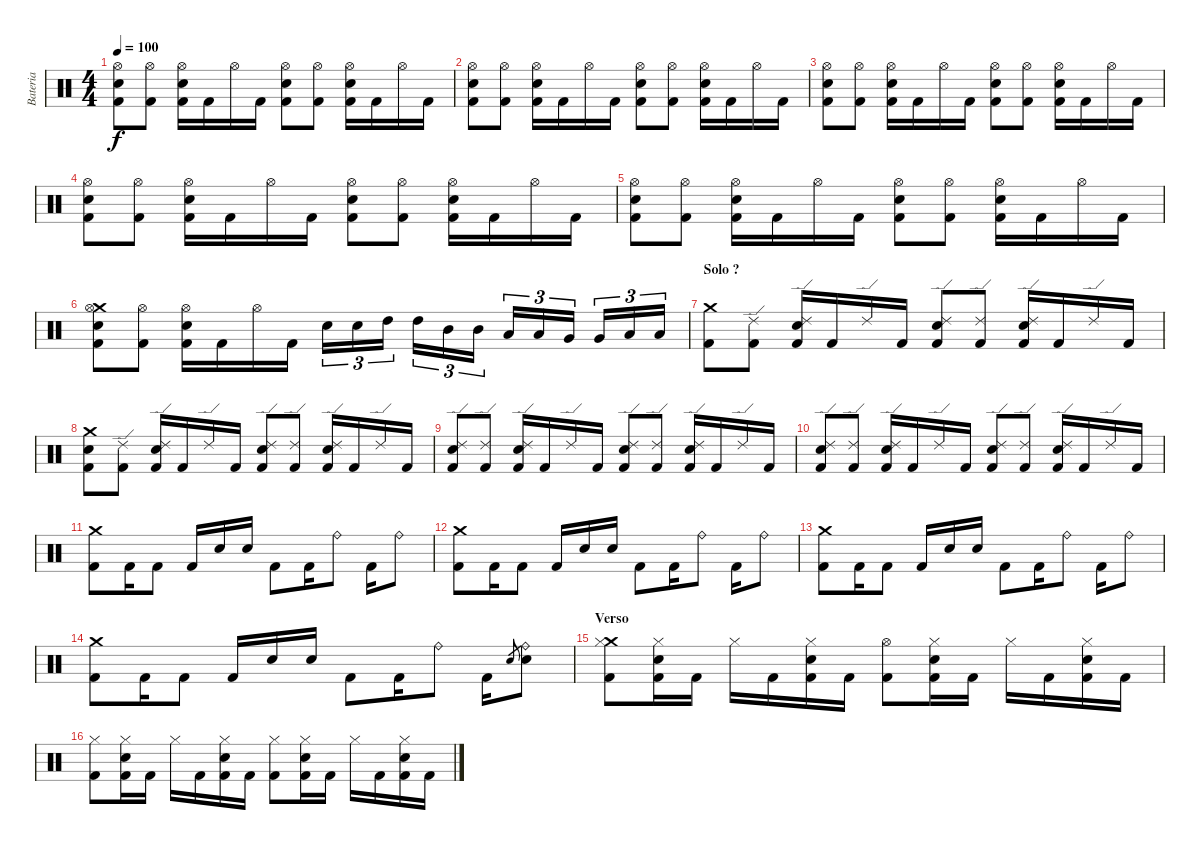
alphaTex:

\track ("Bateria" "Bateria") {instrument percussion}
\staff {score}
\articulation defaults
\ts (4 4)
\tempo 100
\clef neutral
\ks c
("Hi-Hat (open)" "Electric Snare (hit)" "Kick (hit) 2").8{dy f} ("Hi-Hat (open)" "Kick (hit) 2").8 ("Hi-Hat (open)" "Electric Snare (hit)" "Kick (hit) 2").16 "Kick (hit) 2".16 "Hi-Hat (open)".16 "Kick (hit) 2".16 ("Hi-Hat (open)" "Electric Snare (hit)" "Kick (hit) 2").8 ("Hi-Hat (open)" "Kick (hit) 2").8 ("Hi-Hat (open)" "Electric Snare (hit)" "Kick (hit) 2").16 "Kick (hit) 2".16 "Hi-Hat (open)".16 "Kick (hit) 2".16 |
("Hi-Hat (open)" "Electric Snare (hit)" "Kick (hit) 2").8 ("Hi-Hat (open)" "Kick (hit) 2").8 ("Hi-Hat (open)" "Electric Snare (hit)" "Kick (hit) 2").16 "Kick (hit) 2".16 "Hi-Hat (open)".16 "Kick (hit) 2".16 ("Hi-Hat (open)" "Electric Snare (hit)" "Kick (hit) 2").8 ("Hi-Hat (open)" "Kick (hit) 2").8 ("Hi-Hat (open)" "Electric Snare (hit)" "Kick (hit) 2").16 "Kick (hit) 2".16 "Hi-Hat (open)".16 "Kick (hit) 2".16 |
("Hi-Hat (open)" "Electric Snare (hit)" "Kick (hit) 2").8 ("Hi-Hat (open)" "Kick (hit) 2").8 ("Hi-Hat (open)" "Electric Snare (hit)" "Kick (hit) 2").16 "Kick (hit) 2".16 "Hi-Hat (open)".16 "Kick (hit) 2".16 ("Hi-Hat (open)" "Electric Snare (hit)" "Kick (hit) 2").8 ("Hi-Hat (open)" "Kick (hit) 2").8 ("Hi-Hat (open)" "Electric Snare (hit)" "Kick (hit) 2").16 "Kick (hit) 2".16 "Hi-Hat (open)".16 "Kick (hit) 2".16 |
("Hi-Hat (open)" "Electric Snare (hit)" "Kick (hit) 2").8 ("Hi-Hat (open)" "Kick (hit) 2").8 ("Hi-Hat (open)" "Electric Snare (hit)" "Kick (hit) 2").16 "Kick (hit) 2".16 "Hi-Hat (open)".16 "Kick (hit) 2".16 ("Hi-Hat (open)" "Electric Snare (hit)" "Kick (hit) 2").8 ("Hi-Hat (open)" "Kick (hit) 2").8 ("Hi-Hat (open)" "Electric Snare (hit)" "Kick (hit) 2").16 "Kick (hit) 2".16 "Hi-Hat (open)".16 "Kick (hit) 2".16 |
("Hi-Hat (open)" "Electric Snare (hit)" "Kick (hit) 2").8 ("Hi-Hat (open)" "Kick (hit) 2").8 ("Hi-Hat (open)" "Electric Snare (hit)" "Kick (hit) 2").16 "Kick (hit) 2".16 "Hi-Hat (open)".16 "Kick (hit) 2".16 ("Hi-Hat (open)" "Electric Snare (hit)" "Kick (hit) 2").8 ("Hi-Hat (open)" "Kick (hit) 2").8 ("Hi-Hat (open)" "Electric Snare (hit)" "Kick (hit) 2").16 "Kick (hit) 2".16 "Hi-Hat (open)".16 "Kick (hit) 2".16 |
("Crash medium (hit)" "Hi-Hat (open)" "Electric Snare (hit)" "Kick (hit) 2").8 ("Hi-Hat (open)" "Kick (hit) 2").8 ("Hi-Hat (open)" "Electric Snare (hit)" "Kick (hit) 2").16 "Kick (hit) 2".16 "Hi-Hat (open)".16 "Kick (hit) 2".16 "Electric Snare (hit)".16{tu (3 2)} "Electric Snare (hit)".16{tu (3 2)} "High Tom (hit)".16{tu (3 2)} "High Tom (hit)".16{tu (3 2)} "Mid Tom (hit)".16{tu (3 2)} "Mid Tom (hit)".16{tu (3 2)} "Low Tom (hit)".16{tu (3 2)} "Low Tom (hit)".16{tu (3 2)} "Very Low Tom (hit)".16{tu (3 2)} "Very Low Tom (hit)".16{tu (3 2)} "Low Floor Tom (hit)".16{tu (3 2)} "Low Floor Tom (hit)".16{tu (3 2)} |
\section ("" "Solo ?")
("Crash medium (hit)" "Kick (hit) 2").8 ("Ride (edge) 2" "Kick (hit) 2").8 ("Ride (edge) 2" "Electric Snare (hit)" "Kick (hit) 2").16 "Kick (hit) 2".16 "Ride (edge) 2".16 "Kick (hit) 2".16 ("Ride (edge) 2" "Electric Snare (hit)" "Kick (hit) 2").8 ("Ride (edge) 2" "Kick (hit) 2").8 ("Ride (edge) 2" "Electric Snare (hit)" "Kick (hit) 2").16 "Kick (hit) 2".16 "Ride (edge) 2".16 "Kick (hit) 2".16 |
("Crash medium (hit)" "Electric Snare (hit)" "Kick (hit) 2").8 ("Ride (edge) 2" "Kick (hit) 2").8 ("Ride (edge) 2" "Electric Snare (hit)" "Kick (hit) 2").16 "Kick (hit) 2".16 "Ride (edge) 2".16 "Kick (hit) 2".16 ("Ride (edge) 2" "Electric Snare (hit)" "Kick (hit) 2").8 ("Ride (edge) 2" "Kick (hit) 2").8 ("Ride (edge) 2" "Electric Snare (hit)" "Kick (hit) 2").16 "Kick (hit) 2".16 "Ride (edge) 2".16 "Kick (hit) 2".16 |
("Ride (edge) 2" "Electric Snare (hit)" "Kick (hit) 2").8 ("Ride (edge) 2" "Kick (hit) 2").8 ("Ride (edge) 2" "Electric Snare (hit)" "Kick (hit) 2").16 "Kick (hit) 2".16 "Ride (edge) 2".16 "Kick (hit) 2".16 ("Ride (edge) 2" "Electric Snare (hit)" "Kick (hit) 2").8 ("Ride (edge) 2" "Kick (hit) 2").8 ("Ride (edge) 2" "Electric Snare (hit)" "Kick (hit) 2").16 "Kick (hit) 2".16 "Ride (edge) 2".16 "Kick (hit) 2".16 |
("Ride (edge) 2" "Electric Snare (hit)" "Kick (hit) 2").8 ("Ride (edge) 2" "Kick (hit) 2").8 ("Ride (edge) 2" "Electric Snare (hit)" "Kick (hit) 2").16 "Kick (hit) 2".16 "Ride (edge) 2".16 "Kick (hit) 2".16 ("Ride (edge) 2" "Electric Snare (hit)" "Kick (hit) 2").8 ("Ride (edge) 2" "Kick (hit) 2").8 ("Ride (edge) 2" "Electric Snare (hit)" "Kick (hit) 2").16 "Kick (hit) 2".16 "Ride (edge) 2".16 "Kick (hit) 2".16 |
("Crash medium (hit)" "Kick (hit) 2").8 "Kick (hit) 2".16 "Kick (hit) 2".8 "Kick (hit) 2".16 "Electric Snare (hit)".16 "Electric Snare (hit)".16 "Kick (hit) 2".8 "Kick (hit) 2".16 "Ride (bell)".8 "Kick (hit) 2".16 "Ride (bell)".8 |
("Crash medium (hit)" "Kick (hit) 2").8 "Kick (hit) 2".16 "Kick (hit) 2".8 "Kick (hit) 2".16 "Electric Snare (hit)".16 "Electric Snare (hit)".16 "Kick (hit) 2".8 "Kick (hit) 2".16 "Ride (bell)".8 "Kick (hit) 2".16 "Ride (bell)".8 |
("Crash medium (hit)" "Kick (hit) 2").8 "Kick (hit) 2".16 "Kick (hit) 2".8 "Kick (hit) 2".16 "Electric Snare (hit)".16 "Electric Snare (hit)".16 "Kick (hit) 2".8 "Kick (hit) 2".16 "Ride (bell)".8 "Kick (hit) 2".16 "Ride (bell)".8 |
("Crash medium (hit)" "Kick (hit) 2").8 "Kick (hit) 2".16 "Kick (hit) 2".8 "Kick (hit) 2".16 "Electric Snare (hit)".16 "Electric Snare (hit)".16 "Kick (hit) 2".8 "Kick (hit) 2".16 "Ride (bell)".8 "Kick (hit) 2".16 "Electric Snare (hit)".8{gr} ("Ride (bell)" "Electric Snare (hit)").8 |
\section ("" "Verso")
("Crash medium (hit)" "Hi-Hat (closed)" "Kick (hit) 2").8 ("Hi-Hat (closed)" "Electric Snare (hit)" "Kick (hit) 2").16 "Kick (hit) 2".16 "Hi-Hat (closed)".16 "Kick (hit) 2".16 ("Hi-Hat (closed)" "Electric Snare (hit)" "Kick (hit) 2").16 "Kick (hit) 2".16 ("Hi-Hat (open)" "Kick (hit) 2").8 ("Hi-Hat (closed)" "Electric Snare (hit)" "Kick (hit) 2").16 "Kick (hit) 2".16 "Hi-Hat (closed)".16 "Kick (hit) 2".16 ("Hi-Hat (closed)" "Electric Snare (hit)" "Kick (hit) 2").16 "Kick (hit) 2".16 |
("Hi-Hat (closed)" "Kick (hit) 2").8 ("Hi-Hat (closed)" "Electric Snare (hit)" "Kick (hit) 2").16 "Kick (hit) 2".16 "Hi-Hat (closed)".16 "Kick (hit) 2".16 ("Hi-Hat (closed)" "Electric Snare (hit)" "Kick (hit) 2").16 "Kick (hit) 2".16 ("Hi-Hat (closed)" "Kick (hit) 2").8 ("Hi-Hat (closed)" "Electric Snare (hit)" "Kick (hit) 2").16 "Kick (hit) 2".16 "Hi-Hat (closed)".16 "Kick (hit) 2".16 ("Hi-Hat (closed)" "Electric Snare (hit)" "Kick (hit) 2").16 "Kick (hit) 2".16
